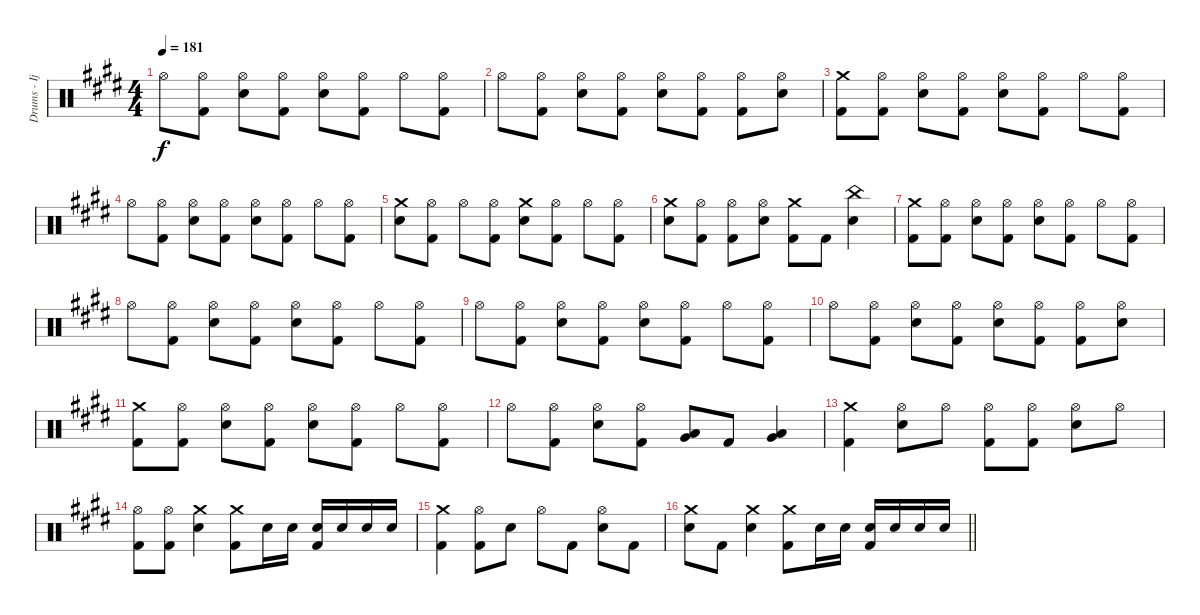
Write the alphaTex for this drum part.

\track ("Drums - Ijichi" "Drums - Ij") {instrument percussion}
\staff {score}
\articulation defaults
\ts (4 4)
\tempo 181
\clef neutral
\ks e "Hi-Hat (open)".8{dy f}
("Hi-Hat (open)" "Kick (hit) 2").8 ("Hi-Hat (open)" "Electric Snare (hit)").8 ("Hi-Hat (open)" "Kick (hit) 2").8 ("Hi-Hat (open)" "Electric Snare (hit)").8 ("Hi-Hat (open)" "Kick (hit) 2").8 "Hi-Hat (open)".8 ("Hi-Hat (open)" "Kick (hit) 2").8 |
"Hi-Hat (open)".8 ("Hi-Hat (open)" "Kick (hit) 2").8 ("Hi-Hat (open)" "Electric Snare (hit)").8 ("Hi-Hat (open)" "Kick (hit) 2").8 ("Hi-Hat (open)" "Electric Snare (hit)").8 ("Hi-Hat (open)" "Kick (hit) 2").8 ("Hi-Hat (open)" "Kick (hit) 2").8 ("Hi-Hat (open)" "Electric Snare (hit)").8 |
("Crash medium (hit)" "Kick (hit) 2").8 ("Hi-Hat (open)" "Kick (hit) 2").8 ("Hi-Hat (open)" "Electric Snare (hit)").8 ("Hi-Hat (open)" "Kick (hit) 2").8 ("Hi-Hat (open)" "Electric Snare (hit)").8 ("Hi-Hat (open)" "Kick (hit) 2").8 "Hi-Hat (open)".8 ("Hi-Hat (open)" "Kick (hit) 2").8 |
"Hi-Hat (open)".8 ("Hi-Hat (open)" "Kick (hit) 2").8 ("Hi-Hat (open)" "Electric Snare (hit)").8 ("Hi-Hat (open)" "Kick (hit) 2").8 ("Hi-Hat (open)" "Electric Snare (hit)").8 ("Hi-Hat (open)" "Kick (hit) 2").8 "Hi-Hat (open)".8 ("Hi-Hat (open)" "Kick (hit) 2").8 |
("Crash medium (hit)" "Electric Snare (hit)").8 ("Hi-Hat (open)" "Kick (hit) 2").8 "Hi-Hat (open)".8 ("Hi-Hat (open)" "Kick (hit) 2").8 ("Crash medium (hit)" "Electric Snare (hit)").8 ("Hi-Hat (open)" "Kick (hit) 2").8 "Hi-Hat (open)".8 ("Hi-Hat (open)" "Kick (hit) 2").8 |
("Crash medium (hit)" "Electric Snare (hit)").8 ("Hi-Hat (open)" "Kick (hit) 2").8 ("Hi-Hat (open)" "Kick (hit) 2").8 ("Hi-Hat (open)" "Electric Snare (hit)").8 ("Crash medium (hit)" "Kick (hit) 2").8 "Kick (hit) 2".8 ("China (hit)" "Electric Snare (hit)").4 |
("Crash medium (hit)" "Kick (hit) 2").8 ("Hi-Hat (open)" "Kick (hit) 2").8 ("Hi-Hat (open)" "Electric Snare (hit)").8 ("Hi-Hat (open)" "Kick (hit) 2").8 ("Hi-Hat (open)" "Electric Snare (hit)").8 ("Hi-Hat (open)" "Kick (hit) 2").8 "Hi-Hat (open)".8 ("Hi-Hat (open)" "Kick (hit) 2").8 |
"Hi-Hat (open)".8 ("Hi-Hat (open)" "Kick (hit) 2").8 ("Hi-Hat (open)" "Electric Snare (hit)").8 ("Hi-Hat (open)" "Kick (hit) 2").8 ("Hi-Hat (open)" "Electric Snare (hit)").8 ("Hi-Hat (open)" "Kick (hit) 2").8 "Hi-Hat (open)".8 ("Hi-Hat (open)" "Kick (hit) 2").8 |
"Hi-Hat (open)".8 ("Hi-Hat (open)" "Kick (hit) 2").8 ("Hi-Hat (open)" "Electric Snare (hit)").8 ("Hi-Hat (open)" "Kick (hit) 2").8 ("Hi-Hat (open)" "Electric Snare (hit)").8 ("Hi-Hat (open)" "Kick (hit) 2").8 "Hi-Hat (open)".8 ("Hi-Hat (open)" "Kick (hit) 2").8 |
"Hi-Hat (open)".8 ("Hi-Hat (open)" "Kick (hit) 2").8 ("Hi-Hat (open)" "Electric Snare (hit)").8 ("Hi-Hat (open)" "Kick (hit) 2").8 ("Hi-Hat (open)" "Electric Snare (hit)").8 ("Hi-Hat (open)" "Kick (hit) 2").8 ("Hi-Hat (open)" "Kick (hit) 2").8 ("Hi-Hat (open)" "Electric Snare (hit)").8 |
("Crash medium (hit)" "Kick (hit) 2").8 ("Hi-Hat (open)" "Kick (hit) 2").8 ("Hi-Hat (open)" "Electric Snare (hit)").8 ("Hi-Hat (open)" "Kick (hit) 2").8 ("Hi-Hat (open)" "Electric Snare (hit)").8 ("Hi-Hat (open)" "Kick (hit) 2").8 "Hi-Hat (open)".8 ("Hi-Hat (open)" "Kick (hit) 2").8 |
"Hi-Hat (open)".8 ("Hi-Hat (open)" "Kick (hit) 2").8 ("Hi-Hat (open)" "Electric Snare (hit)").8 ("Hi-Hat (open)" "Kick (hit) 2").8 ("Low Tom (hit)" "Very Low Tom (hit)").8 "Kick (hit) 2".8 ("Low Tom (hit)" "Very Low Tom (hit)").4 |
("Crash medium (hit)" "Kick (hit) 2").4 ("Hi-Hat (open)" "Electric Snare (hit)").8 "Hi-Hat (open)".8 ("Hi-Hat (open)" "Kick (hit) 2").8 ("Hi-Hat (open)" "Kick (hit) 2").8 ("Hi-Hat (open)" "Electric Snare (hit)").8 "Hi-Hat (open)".8 |
("Hi-Hat (open)" "Kick (hit) 2").8 ("Hi-Hat (open)" "Kick (hit) 2").8 ("Crash medium (hit)" "Electric Snare (hit)").4 ("Crash medium (hit)" "Kick (hit) 2").8 "Electric Snare (hit)".16 "Electric Snare (hit)".16 ("Electric Snare (hit)" "Kick (hit) 2").16 "Electric Snare (hit)".16 "Electric Snare (hit)".16 "Electric Snare (hit)".16 |
("Crash medium (hit)" "Kick (hit) 2").4 ("Hi-Hat (open)" "Kick (hit) 2").8 "Electric Snare (hit)".8 "Hi-Hat (open)".8 "Kick (hit) 2".8 ("Hi-Hat (open)" "Electric Snare (hit)").8 "Kick (hit) 2".8 |
\barLineRight lightlight
("Crash medium (hit)" "Electric Snare (hit)").8 "Kick (hit) 2".8 ("Crash medium (hit)" "Electric Snare (hit)").4 ("Crash medium (hit)" "Kick (hit) 2").8 "Electric Snare (hit)".16 "Electric Snare (hit)".16 ("Electric Snare (hit)" "Kick (hit) 2").16 "Electric Snare (hit)".16 "Electric Snare (hit)".16 "Electric Snare (hit)".16
